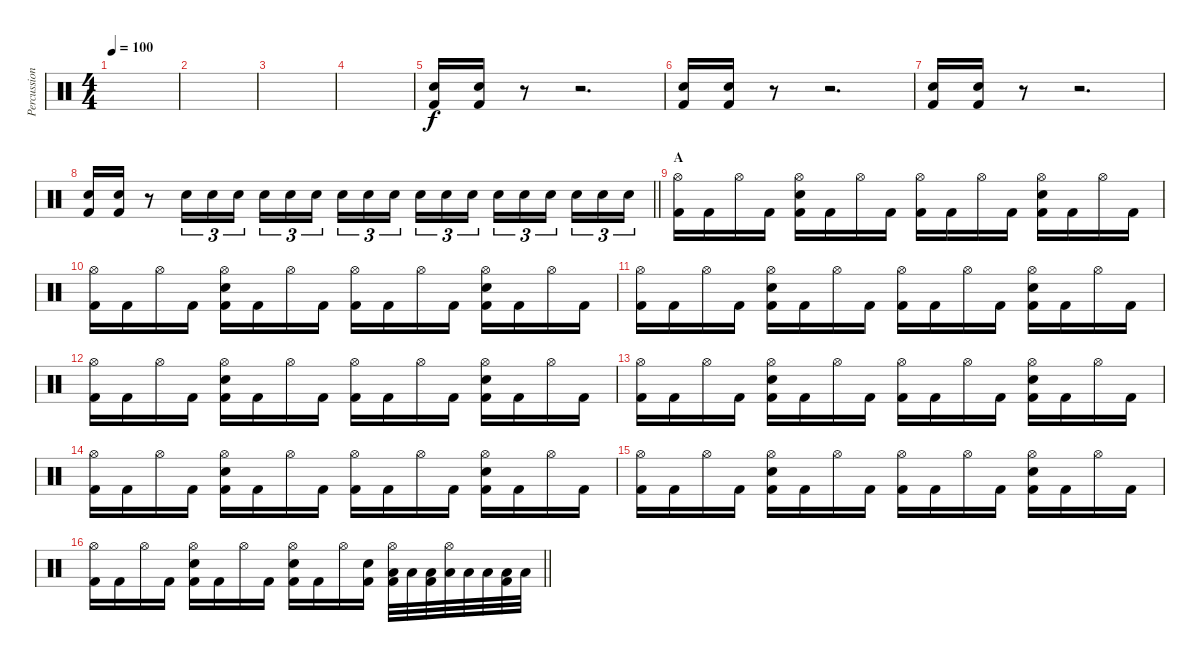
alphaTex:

\track ("Percussion" "Percussion") {instrument percussion}
\staff {score}
\articulation defaults
\ts (4 4)
\tempo 100
\clef neutral
\ks c
|
|
|
|
("Electric Snare (hit)" "Kick (hit) 2").16 ("Electric Snare (hit)" "Kick (hit) 2").16 r.8 r.2{d} |
("Electric Snare (hit)" "Kick (hit) 2").16 ("Electric Snare (hit)" "Kick (hit) 2").16 r.8 r.2{d} |
("Electric Snare (hit)" "Kick (hit) 2").16 ("Electric Snare (hit)" "Kick (hit) 2").16 r.8 r.2{d} |
\barLineRight lightlight
("Electric Snare (hit)" "Kick (hit) 2").16 ("Electric Snare (hit)" "Kick (hit) 2").16 r.8 "Electric Snare (hit)".16{tu (3 2)} "Electric Snare (hit)".16{tu (3 2)} "Electric Snare (hit)".16{tu (3 2) beam splitsecondary} "Electric Snare (hit)".16{tu (3 2)} "Electric Snare (hit)".16{tu (3 2)} "Electric Snare (hit)".16{tu (3 2)} "Electric Snare (hit)".16{tu (3 2)} "Electric Snare (hit)".16{tu (3 2)} "Electric Snare (hit)".16{tu (3 2) beam splitsecondary} "Electric Snare (hit)".16{tu (3 2)} "Electric Snare (hit)".16{tu (3 2)} "Electric Snare (hit)".16{tu (3 2)} "Electric Snare (hit)".16{tu (3 2)} "Electric Snare (hit)".16{tu (3 2)} "Electric Snare (hit)".16{tu (3 2) beam splitsecondary} "Electric Snare (hit)".16{tu (3 2)} "Electric Snare (hit)".16{tu (3 2)} "Electric Snare (hit)".16{tu (3 2)} |
\section ("" "A")
("Hi-Hat (open)" "Kick (hit) 2").16 "Kick (hit) 2".16 "Hi-Hat (open)".16 "Kick (hit) 2".16 ("Hi-Hat (open)" "Electric Snare (hit)" "Kick (hit) 2").16 "Kick (hit) 2".16 "Hi-Hat (open)".16 "Kick (hit) 2".16 ("Hi-Hat (open)" "Kick (hit) 2").16 "Kick (hit) 2".16 "Hi-Hat (open)".16 "Kick (hit) 2".16 ("Hi-Hat (open)" "Electric Snare (hit)" "Kick (hit) 2").16 "Kick (hit) 2".16 "Hi-Hat (open)".16 "Kick (hit) 2".16 |
("Hi-Hat (open)" "Kick (hit) 2").16 "Kick (hit) 2".16 "Hi-Hat (open)".16 "Kick (hit) 2".16 ("Hi-Hat (open)" "Electric Snare (hit)" "Kick (hit) 2").16 "Kick (hit) 2".16 "Hi-Hat (open)".16 "Kick (hit) 2".16 ("Hi-Hat (open)" "Kick (hit) 2").16 "Kick (hit) 2".16 "Hi-Hat (open)".16 "Kick (hit) 2".16 ("Hi-Hat (open)" "Electric Snare (hit)" "Kick (hit) 2").16 "Kick (hit) 2".16 "Hi-Hat (open)".16 "Kick (hit) 2".16 |
("Hi-Hat (open)" "Kick (hit) 2").16 "Kick (hit) 2".16 "Hi-Hat (open)".16 "Kick (hit) 2".16 ("Hi-Hat (open)" "Electric Snare (hit)" "Kick (hit) 2").16 "Kick (hit) 2".16 "Hi-Hat (open)".16 "Kick (hit) 2".16 ("Hi-Hat (open)" "Kick (hit) 2").16 "Kick (hit) 2".16 "Hi-Hat (open)".16 "Kick (hit) 2".16 ("Hi-Hat (open)" "Electric Snare (hit)" "Kick (hit) 2").16 "Kick (hit) 2".16 "Hi-Hat (open)".16 "Kick (hit) 2".16 |
("Hi-Hat (open)" "Kick (hit) 2").16 "Kick (hit) 2".16 "Hi-Hat (open)".16 "Kick (hit) 2".16 ("Hi-Hat (open)" "Electric Snare (hit)" "Kick (hit) 2").16 "Kick (hit) 2".16 "Hi-Hat (open)".16 "Kick (hit) 2".16 ("Hi-Hat (open)" "Kick (hit) 2").16 "Kick (hit) 2".16 "Hi-Hat (open)".16 "Kick (hit) 2".16 ("Hi-Hat (open)" "Electric Snare (hit)" "Kick (hit) 2").16 "Kick (hit) 2".16 "Hi-Hat (open)".16 "Kick (hit) 2".16 |
("Hi-Hat (open)" "Kick (hit) 2").16 "Kick (hit) 2".16 "Hi-Hat (open)".16 "Kick (hit) 2".16 ("Hi-Hat (open)" "Electric Snare (hit)" "Kick (hit) 2").16 "Kick (hit) 2".16 "Hi-Hat (open)".16 "Kick (hit) 2".16 ("Hi-Hat (open)" "Kick (hit) 2").16 "Kick (hit) 2".16 "Hi-Hat (open)".16 "Kick (hit) 2".16 ("Hi-Hat (open)" "Electric Snare (hit)" "Kick (hit) 2").16 "Kick (hit) 2".16 "Hi-Hat (open)".16 "Kick (hit) 2".16 |
("Hi-Hat (open)" "Kick (hit) 2").16 "Kick (hit) 2".16 "Hi-Hat (open)".16 "Kick (hit) 2".16 ("Hi-Hat (open)" "Electric Snare (hit)" "Kick (hit) 2").16 "Kick (hit) 2".16 "Hi-Hat (open)".16 "Kick (hit) 2".16 ("Hi-Hat (open)" "Kick (hit) 2").16 "Kick (hit) 2".16 "Hi-Hat (open)".16 "Kick (hit) 2".16 ("Hi-Hat (open)" "Electric Snare (hit)" "Kick (hit) 2").16 "Kick (hit) 2".16 "Hi-Hat (open)".16 "Kick (hit) 2".16 |
("Hi-Hat (open)" "Kick (hit) 2").16 "Kick (hit) 2".16 "Hi-Hat (open)".16 "Kick (hit) 2".16 ("Hi-Hat (open)" "Electric Snare (hit)" "Kick (hit) 2").16 "Kick (hit) 2".16 "Hi-Hat (open)".16 "Kick (hit) 2".16 ("Hi-Hat (open)" "Kick (hit) 2").16 "Kick (hit) 2".16 "Hi-Hat (open)".16 "Kick (hit) 2".16 ("Hi-Hat (open)" "Electric Snare (hit)" "Kick (hit) 2").16 "Kick (hit) 2".16 "Hi-Hat (open)".16 "Kick (hit) 2".16 |
\barLineRight lightlight
("Hi-Hat (open)" "Kick (hit) 2").16 "Kick (hit) 2".16 "Hi-Hat (open)".16 "Kick (hit) 2".16 ("Hi-Hat (open)" "Electric Snare (hit)" "Kick (hit) 2").16 "Kick (hit) 2".16 "Hi-Hat (open)".16 "Kick (hit) 2".16 ("Hi-Hat (open)" "Electric Snare (hit)" "Kick (hit) 2").16 "Kick (hit) 2".16 "Hi-Hat (open)".16 ("Electric Snare (hit)" "Kick (hit) 2").16 ("Hi-Hat (open)" "Low Tom (hit)" "Kick (hit) 2").32 "Low Tom (hit)".32 ("Low Tom (hit)" "Kick (hit) 2").32 ("Hi-Hat (open)" "Low Tom (hit)").32 "Low Tom (hit)".32 "Low Tom (hit)".32 ("Low Tom (hit)" "Kick (hit) 2").32 "Low Tom (hit)".32
